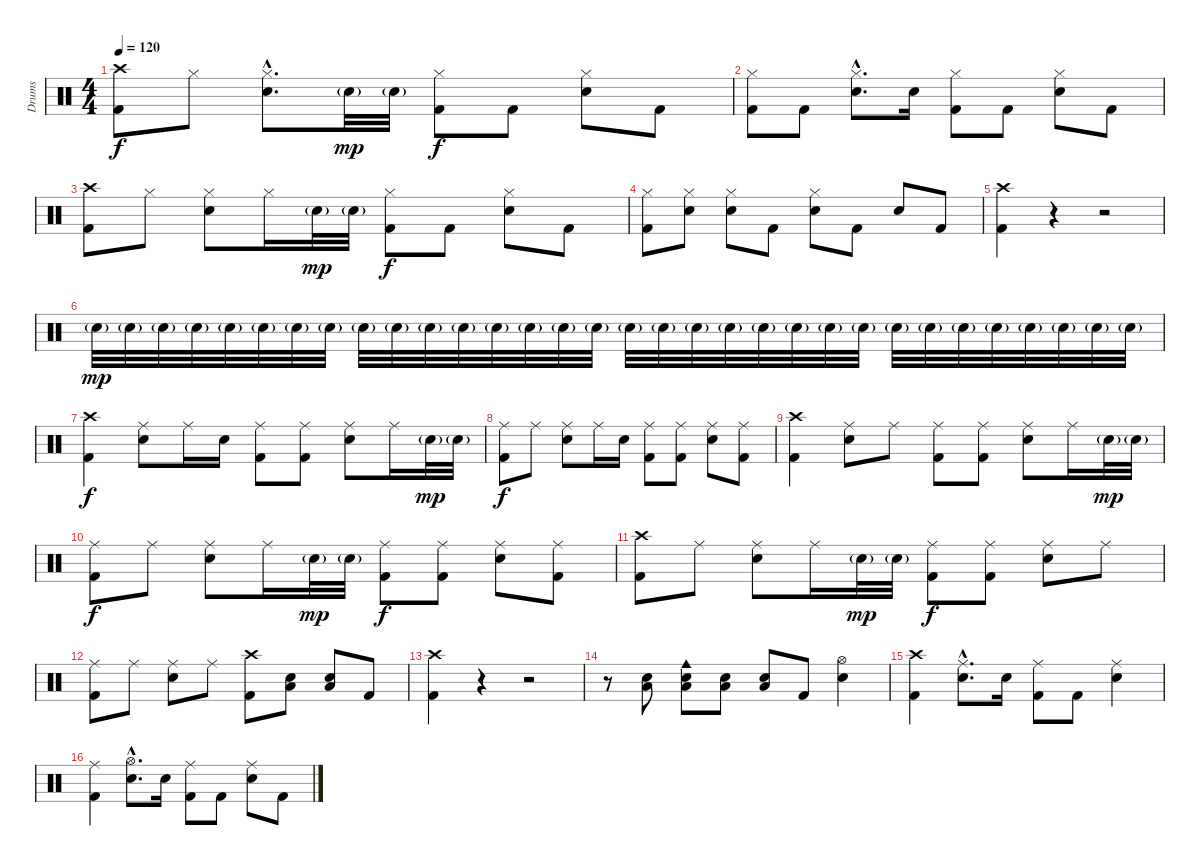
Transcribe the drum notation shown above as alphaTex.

\track ("Drums" "Drums") {instrument percussion}
\staff {score}
\articulation defaults
\ts (4 4)
\tempo 120
\clef neutral
\ks c
("Crash high (hit)" "Kick (hit) 2").8{dy f} "Hi-Hat (closed)".8 ("Hi-Hat (closed)"{hac} "Snare (hit) 2"{hac}).8{d} "Snare (hit) 2"{g}.32{dy mp} "Snare (hit) 2"{g}.32 ("Hi-Hat (closed)" "Kick (hit) 2").8{dy f} "Kick (hit) 2".8 ("Hi-Hat (closed)" "Snare (hit) 2").8 "Kick (hit) 2".8 |
("Hi-Hat (closed)" "Kick (hit) 2").8 "Kick (hit) 2".8 ("Hi-Hat (closed)"{hac} "Snare (hit) 2"{hac}).8{d} "Snare (hit) 2".16 ("Hi-Hat (closed)" "Kick (hit) 2").8 "Kick (hit) 2".8 ("Hi-Hat (closed)" "Snare (hit) 2").8 "Kick (hit) 2".8 |
("Crash high (hit)" "Kick (hit) 2").8 "Hi-Hat (closed)".8 ("Hi-Hat (closed)" "Snare (hit) 2").8 "Hi-Hat (closed)".16 "Snare (hit) 2"{g}.32{dy mp} "Snare (hit) 2"{g}.32 ("Hi-Hat (closed)" "Kick (hit) 2").8{dy f} "Kick (hit) 2".8 ("Hi-Hat (closed)" "Snare (hit) 2").8 "Kick (hit) 2".8 |
("Hi-Hat (closed)" "Kick (hit) 2").8 ("Hi-Hat (closed)" "Snare (hit) 2").8 ("Hi-Hat (closed)" "Snare (hit) 2").8 "Kick (hit) 2".8 ("Hi-Hat (closed)" "Snare (hit) 2").8 "Kick (hit) 2".8 "Snare (hit) 2".8 "Kick (hit) 2".8 |
("Crash high (hit)" "Kick (hit) 2").4 r.4 r.2 |
"Snare (hit) 2"{g}.32{dy mp} "Snare (hit) 2"{g}.32 "Snare (hit) 2"{g}.32 "Snare (hit) 2"{g}.32 "Snare (hit) 2"{g}.32 "Snare (hit) 2"{g}.32 "Snare (hit) 2"{g}.32 "Snare (hit) 2"{g}.32 "Snare (hit) 2"{g}.32 "Snare (hit) 2"{g}.32 "Snare (hit) 2"{g}.32 "Snare (hit) 2"{g}.32 "Snare (hit) 2"{g}.32 "Snare (hit) 2"{g}.32 "Snare (hit) 2"{g}.32 "Snare (hit) 2"{g}.32 "Snare (hit) 2"{g}.32 "Snare (hit) 2"{g}.32 "Snare (hit) 2"{g}.32 "Snare (hit) 2"{g}.32 "Snare (hit) 2"{g}.32 "Snare (hit) 2"{g}.32 "Snare (hit) 2"{g}.32 "Snare (hit) 2"{g}.32 "Snare (hit) 2"{g}.32 "Snare (hit) 2"{g}.32 "Snare (hit) 2"{g}.32 "Snare (hit) 2"{g}.32 "Snare (hit) 2"{g}.32 "Snare (hit) 2"{g}.32 "Snare (hit) 2"{g}.32 "Snare (hit) 2"{g}.32 |
("Crash high (hit)" "Kick (hit) 2").4{dy f} ("Ride (middle)" "Snare (hit) 2").8 "Ride (middle)".16 "Snare (hit) 2".16 ("Ride (middle)" "Kick (hit) 2").8 ("Ride (middle)" "Kick (hit) 2").8 ("Ride (middle)" "Snare (hit) 2").8 "Ride (middle)".16 "Snare (hit) 2"{g}.32{dy mp} "Snare (hit) 2"{g}.32 |
("Ride (middle)" "Kick (hit) 2").8{dy f} "Ride (middle)".8 ("Ride (middle)" "Snare (hit) 2").8 "Ride (middle)".16 "Snare (hit) 2".16 ("Ride (middle)" "Kick (hit) 2").8 ("Ride (middle)" "Kick (hit) 2").8 ("Ride (middle)" "Snare (hit) 2").8 ("Ride (middle)" "Kick (hit) 2").8 |
("Crash high (hit)" "Kick (hit) 2").4 ("Ride (middle)" "Snare (hit) 2").8 "Ride (middle)".8 ("Ride (middle)" "Kick (hit) 2").8 ("Ride (middle)" "Kick (hit) 2").8 ("Ride (middle)" "Snare (hit) 2").8 "Ride (middle)".16 "Snare (hit) 2"{g}.32{dy mp} "Snare (hit) 2"{g}.32 |
("Ride (middle)" "Kick (hit) 2").8{dy f} "Ride (middle)".8 ("Ride (middle)" "Snare (hit) 2").8 "Ride (middle)".16 "Snare (hit) 2"{g}.32{dy mp} "Snare (hit) 2"{g}.32 ("Ride (middle)" "Kick (hit) 2").8{dy f} ("Ride (middle)" "Kick (hit) 2").8 ("Ride (middle)" "Snare (hit) 2").8 ("Ride (middle)" "Kick (hit) 2").8 |
("Crash high (hit)" "Kick (hit) 2").8 "Ride (middle)".8 ("Ride (middle)" "Snare (hit) 2").8 "Ride (middle)".16 "Snare (hit) 2"{g}.32{dy mp} "Snare (hit) 2"{g}.32 ("Ride (middle)" "Kick (hit) 2").8{dy f} ("Ride (middle)" "Kick (hit) 2").8 ("Ride (middle)" "Snare (hit) 2").8 "Ride (middle)".8 |
("Ride (middle)" "Kick (hit) 2").8 "Ride (middle)".8 ("Ride (middle)" "Snare (hit) 2").8 "Ride (middle)".8 ("Crash high (hit)" "Kick (hit) 2").8 ("Snare (hit) 2" "Low Tom (hit)").8 ("Snare (hit) 2" "Low Tom (hit)").8 "Kick (hit) 2".8 |
("Crash high (hit)" "Kick (hit) 2").4 r.4 r.2 |
r.8 ("Snare (hit) 2" "Low Tom (hit)").8 ("Snare (hit) 2" "Low Tom (hit)" "Cowbell medium (hit)").8 ("Snare (hit) 2" "Low Tom (hit)").8 ("Snare (hit) 2" "Low Tom (hit)").8 "Kick (hit) 2".8 ("Hi-Hat (open)" "Snare (hit) 2").4 |
("Crash high (hit)" "Kick (hit) 2").4 ("Ride (middle)"{hac} "Snare (hit) 2"{hac}).8{d} "Snare (hit) 2".16 ("Ride (middle)" "Kick (hit) 2").8 "Kick (hit) 2".8 ("Ride (middle)" "Snare (hit) 2").4 |
("Ride (middle)" "Kick (hit) 2").4 ("Hi-Hat (open)"{hac} "Snare (hit) 2"{hac}).8{d} "Snare (hit) 2".16 ("Ride (middle)" "Kick (hit) 2").8 "Kick (hit) 2".8 ("Ride (middle)" "Snare (hit) 2").8 "Kick (hit) 2".8
